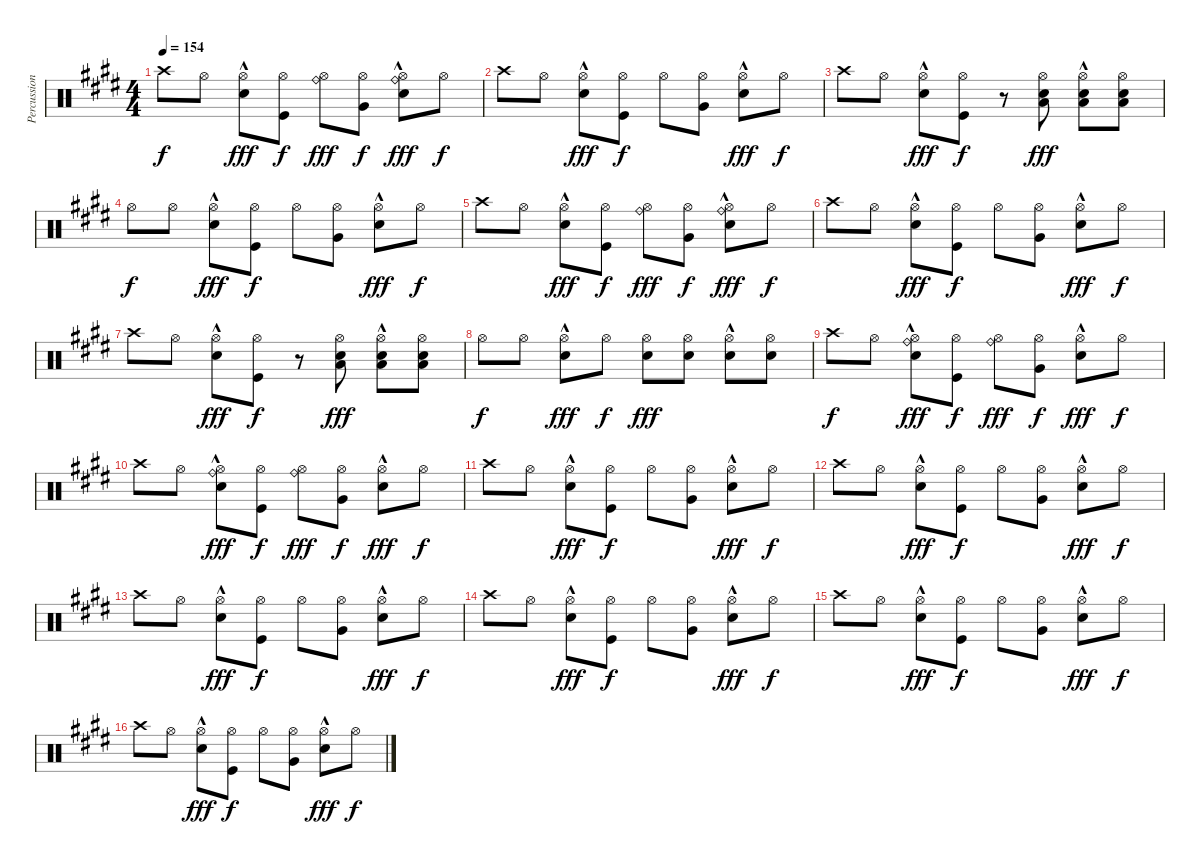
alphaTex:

\track ("Percussion (Derek Grant)" "Percussion") {instrument percussion}
\staff {score}
\articulation defaults
\ts (4 4)
\tempo 154
\clef neutral
\ks c#minor "Crash high (hit)".8{dy f} "Hi-Hat (open)".8
("Hi-Hat (open)" "Snare (hit) 2"{hac}).8{dy fff} ("Hi-Hat (open)" "Kick (hit)").8{dy f} ("Ride (bell)" "Hi-Hat (open)").8{dy fff} ("Hi-Hat (open)" "Very Low Tom (hit)").8{dy f} ("Ride (bell)" "Hi-Hat (open)" "Snare (hit) 2"{hac}).8{dy fff} "Hi-Hat (open)".8{dy f} |
"Crash high (hit)".8 "Hi-Hat (open)".8 ("Hi-Hat (open)" "Snare (hit) 2"{hac}).8{dy fff} ("Hi-Hat (open)" "Kick (hit)").8{dy f} "Hi-Hat (open)".8 ("Hi-Hat (open)" "Very Low Tom (hit)").8 ("Hi-Hat (open)" "Snare (hit) 2"{hac}).8{dy fff} "Hi-Hat (open)".8{dy f} |
"Crash high (hit)".8 "Hi-Hat (open)".8 ("Hi-Hat (open)" "Snare (hit) 2"{hac}).8{dy fff} ("Hi-Hat (open)" "Kick (hit)").8{dy f} r.8 ("Hi-Hat (open)" "Electric Snare (hit)" "Low Floor Tom (hit)").8{dy fff} ("Hi-Hat (open)" "Snare (hit) 2"{hac} "Low Floor Tom (hit)").8 ("Hi-Hat (open)" "Electric Snare (hit)" "Low Floor Tom (hit)").8 |
"Hi-Hat (open)".8{dy f} "Hi-Hat (open)".8 ("Hi-Hat (open)" "Snare (hit) 2"{hac}).8{dy fff} ("Hi-Hat (open)" "Kick (hit)").8{dy f} "Hi-Hat (open)".8 ("Hi-Hat (open)" "Very Low Tom (hit)").8 ("Hi-Hat (open)" "Snare (hit) 2"{hac}).8{dy fff} "Hi-Hat (open)".8{dy f} |
"Crash high (hit)".8 "Hi-Hat (open)".8 ("Hi-Hat (open)" "Snare (hit) 2"{hac}).8{dy fff} ("Hi-Hat (open)" "Kick (hit)").8{dy f} ("Ride (bell)" "Hi-Hat (open)").8{dy fff} ("Hi-Hat (open)" "Very Low Tom (hit)").8{dy f} ("Ride (bell)" "Hi-Hat (open)" "Snare (hit) 2"{hac}).8{dy fff} "Hi-Hat (open)".8{dy f} |
"Crash high (hit)".8 "Hi-Hat (open)".8 ("Hi-Hat (open)" "Snare (hit) 2"{hac}).8{dy fff} ("Hi-Hat (open)" "Kick (hit)").8{dy f} "Hi-Hat (open)".8 ("Hi-Hat (open)" "Very Low Tom (hit)").8 ("Hi-Hat (open)" "Snare (hit) 2"{hac}).8{dy fff} "Hi-Hat (open)".8{dy f} |
"Crash high (hit)".8 "Hi-Hat (open)".8 ("Hi-Hat (open)" "Snare (hit) 2"{hac}).8{dy fff} ("Hi-Hat (open)" "Kick (hit)").8{dy f} r.8 ("Hi-Hat (open)" "Electric Snare (hit)" "Low Floor Tom (hit)").8{dy fff} ("Hi-Hat (open)" "Snare (hit) 2"{hac} "Low Floor Tom (hit)").8 ("Hi-Hat (open)" "Electric Snare (hit)" "Low Floor Tom (hit)").8 |
"Hi-Hat (open)".8{dy f} "Hi-Hat (open)".8 ("Hi-Hat (open)" "Snare (hit) 2"{hac}).8{dy fff} "Hi-Hat (open)".8{dy f} ("Hi-Hat (open)" "Electric Snare (hit)").8{dy fff} ("Hi-Hat (open)" "Electric Snare (hit)").8 ("Hi-Hat (open)" "Snare (hit) 2"{hac}).8 ("Hi-Hat (open)" "Electric Snare (hit)").8 |
"Crash high (hit)".8{dy f} "Hi-Hat (open)".8 ("Ride (bell)" "Hi-Hat (open)" "Snare (hit) 2"{hac}).8{dy fff} ("Hi-Hat (open)" "Kick (hit)").8{dy f} ("Ride (bell)" "Hi-Hat (open)").8{dy fff} ("Hi-Hat (open)" "Very Low Tom (hit)").8{dy f} ("Hi-Hat (open)" "Snare (hit) 2"{hac}).8{dy fff} "Hi-Hat (open)".8{dy f} |
"Crash high (hit)".8 "Hi-Hat (open)".8 ("Ride (bell)" "Hi-Hat (open)" "Snare (hit) 2"{hac}).8{dy fff} ("Hi-Hat (open)" "Kick (hit)").8{dy f} ("Ride (bell)" "Hi-Hat (open)").8{dy fff} ("Hi-Hat (open)" "Very Low Tom (hit)").8{dy f} ("Hi-Hat (open)" "Snare (hit) 2"{hac}).8{dy fff} "Hi-Hat (open)".8{dy f} |
"Crash high (hit)".8 "Hi-Hat (open)".8 ("Hi-Hat (open)" "Snare (hit) 2"{hac}).8{dy fff} ("Hi-Hat (open)" "Kick (hit)").8{dy f} "Hi-Hat (open)".8 ("Hi-Hat (open)" "Very Low Tom (hit)").8 ("Hi-Hat (open)" "Snare (hit) 2"{hac}).8{dy fff} "Hi-Hat (open)".8{dy f} |
"Crash high (hit)".8 "Hi-Hat (open)".8 ("Hi-Hat (open)" "Snare (hit) 2"{hac}).8{dy fff} ("Hi-Hat (open)" "Kick (hit)").8{dy f} "Hi-Hat (open)".8 ("Hi-Hat (open)" "Very Low Tom (hit)").8 ("Hi-Hat (open)" "Snare (hit) 2"{hac}).8{dy fff} "Hi-Hat (open)".8{dy f} |
"Crash high (hit)".8 "Hi-Hat (open)".8 ("Hi-Hat (open)" "Snare (hit) 2"{hac}).8{dy fff} ("Hi-Hat (open)" "Kick (hit)").8{dy f} "Hi-Hat (open)".8 ("Hi-Hat (open)" "Very Low Tom (hit)").8 ("Hi-Hat (open)" "Snare (hit) 2"{hac}).8{dy fff} "Hi-Hat (open)".8{dy f} |
"Crash high (hit)".8 "Hi-Hat (open)".8 ("Hi-Hat (open)" "Snare (hit) 2"{hac}).8{dy fff} ("Hi-Hat (open)" "Kick (hit)").8{dy f} "Hi-Hat (open)".8 ("Hi-Hat (open)" "Very Low Tom (hit)").8 ("Hi-Hat (open)" "Snare (hit) 2"{hac}).8{dy fff} "Hi-Hat (open)".8{dy f} |
"Crash high (hit)".8 "Hi-Hat (open)".8 ("Hi-Hat (open)" "Snare (hit) 2"{hac}).8{dy fff} ("Hi-Hat (open)" "Kick (hit)").8{dy f} "Hi-Hat (open)".8 ("Hi-Hat (open)" "Very Low Tom (hit)").8 ("Hi-Hat (open)" "Snare (hit) 2"{hac}).8{dy fff} "Hi-Hat (open)".8{dy f} |
"Crash high (hit)".8 "Hi-Hat (open)".8 ("Hi-Hat (open)" "Snare (hit) 2"{hac}).8{dy fff} ("Hi-Hat (open)" "Kick (hit)").8{dy f} "Hi-Hat (open)".8 ("Hi-Hat (open)" "Very Low Tom (hit)").8 ("Hi-Hat (open)" "Snare (hit) 2"{hac}).8{dy fff} "Hi-Hat (open)".8{dy f}
